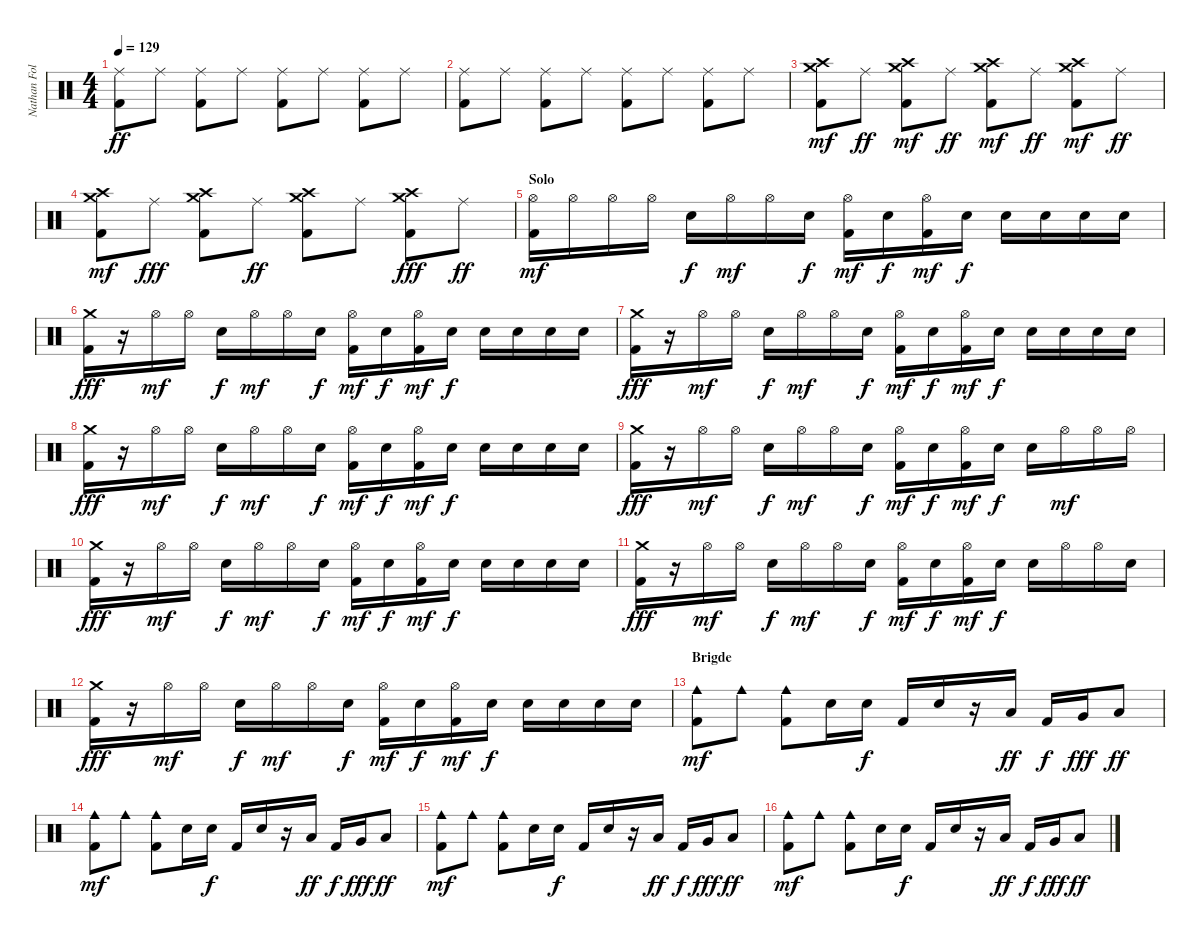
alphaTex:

\track ("Nathan Followill" "Nathan Fol") {instrument percussion}
\staff {score}
\articulation defaults
\ts (4 4)
\tempo 129
\clef neutral
\ks c
("Ride (middle)" "Kick (hit) 2").8{dy ff} "Ride (middle)".8 ("Ride (middle)" "Kick (hit) 2").8 "Ride (middle)".8 ("Ride (middle)" "Kick (hit) 2").8 "Ride (middle)".8 ("Ride (middle)" "Kick (hit) 2").8 "Ride (middle)".8 |
("Ride (middle)" "Kick (hit) 2").8 "Ride (middle)".8 ("Ride (middle)" "Kick (hit) 2").8 "Ride (middle)".8 ("Ride (middle)" "Kick (hit) 2").8 "Ride (middle)".8 ("Ride (middle)" "Kick (hit) 2").8 "Ride (middle)".8 |
("Crash medium (hit)" "Crash high (hit)" "Kick (hit) 2").8{dy mf} "Ride (middle)".8{dy ff} ("Crash medium (hit)" "Crash high (hit)" "Kick (hit) 2").8{dy mf} "Ride (middle)".8{dy ff} ("Crash medium (hit)" "Crash high (hit)" "Kick (hit) 2").8{dy mf} "Ride (middle)".8{dy ff} ("Crash medium (hit)" "Crash high (hit)" "Kick (hit) 2").8{dy mf} "Ride (middle)".8{dy ff} |
("Crash medium (hit)" "Crash high (hit)" "Kick (hit) 2").8{dy mf} "Ride (middle)".8{dy fff} ("Crash medium (hit)" "Crash high (hit)" "Kick (hit) 2").8 "Ride (middle)".8{dy ff} ("Crash medium (hit)" "Crash high (hit)" "Kick (hit) 2").8 "Ride (middle)".8 ("Crash medium (hit)" "Crash high (hit)" "Kick (hit) 2").8{dy fff} "Ride (middle)".8{dy ff} |
\section ("" "Solo")
("Hi-Hat (open)" "Kick (hit) 2").16{dy mf} "Hi-Hat (open)".16 "Hi-Hat (open)".16 "Hi-Hat (open)".16 "Electric Snare (hit)".16{dy f} "Hi-Hat (open)".16{dy mf} "Hi-Hat (open)".16 "Electric Snare (hit)".16{dy f} ("Hi-Hat (open)" "Kick (hit) 2").16{dy mf} "Electric Snare (hit)".16{dy f} ("Hi-Hat (open)" "Kick (hit) 2").16{dy mf} "Electric Snare (hit)".16{dy f} "Electric Snare (hit)".16 "Electric Snare (hit)".16 "Electric Snare (hit)".16 "Electric Snare (hit)".16 |
("Crash medium (hit)" "Kick (hit) 2").16{dy fff} r.16 "Hi-Hat (open)".16{dy mf} "Hi-Hat (open)".16 "Electric Snare (hit)".16{dy f} "Hi-Hat (open)".16{dy mf} "Hi-Hat (open)".16 "Electric Snare (hit)".16{dy f} ("Hi-Hat (open)" "Kick (hit) 2").16{dy mf} "Electric Snare (hit)".16{dy f} ("Hi-Hat (open)" "Kick (hit) 2").16{dy mf} "Electric Snare (hit)".16{dy f} "Electric Snare (hit)".16 "Electric Snare (hit)".16 "Electric Snare (hit)".16 "Electric Snare (hit)".16 |
("Crash medium (hit)" "Kick (hit) 2").16{dy fff} r.16 "Hi-Hat (open)".16{dy mf} "Hi-Hat (open)".16 "Electric Snare (hit)".16{dy f} "Hi-Hat (open)".16{dy mf} "Hi-Hat (open)".16 "Electric Snare (hit)".16{dy f} ("Hi-Hat (open)" "Kick (hit) 2").16{dy mf} "Electric Snare (hit)".16{dy f} ("Hi-Hat (open)" "Kick (hit) 2").16{dy mf} "Electric Snare (hit)".16{dy f} "Electric Snare (hit)".16 "Electric Snare (hit)".16 "Electric Snare (hit)".16 "Electric Snare (hit)".16 |
("Crash medium (hit)" "Kick (hit) 2").16{dy fff} r.16 "Hi-Hat (open)".16{dy mf} "Hi-Hat (open)".16 "Electric Snare (hit)".16{dy f} "Hi-Hat (open)".16{dy mf} "Hi-Hat (open)".16 "Electric Snare (hit)".16{dy f} ("Hi-Hat (open)" "Kick (hit) 2").16{dy mf} "Electric Snare (hit)".16{dy f} ("Hi-Hat (open)" "Kick (hit) 2").16{dy mf} "Electric Snare (hit)".16{dy f} "Electric Snare (hit)".16 "Electric Snare (hit)".16 "Electric Snare (hit)".16 "Electric Snare (hit)".16 |
("Crash medium (hit)" "Kick (hit) 2").16{dy fff} r.16 "Hi-Hat (open)".16{dy mf} "Hi-Hat (open)".16 "Electric Snare (hit)".16{dy f} "Hi-Hat (open)".16{dy mf} "Hi-Hat (open)".16 "Electric Snare (hit)".16{dy f} ("Hi-Hat (open)" "Kick (hit) 2").16{dy mf} "Electric Snare (hit)".16{dy f} ("Hi-Hat (open)" "Kick (hit) 2").16{dy mf} "Electric Snare (hit)".16{dy f} "Electric Snare (hit)".16 "Hi-Hat (open)".16{dy mf} "Hi-Hat (open)".16 "Hi-Hat (open)".16 |
("Crash medium (hit)" "Kick (hit) 2").16{dy fff} r.16 "Hi-Hat (open)".16{dy mf} "Hi-Hat (open)".16 "Electric Snare (hit)".16{dy f} "Hi-Hat (open)".16{dy mf} "Hi-Hat (open)".16 "Electric Snare (hit)".16{dy f} ("Hi-Hat (open)" "Kick (hit) 2").16{dy mf} "Electric Snare (hit)".16{dy f} ("Hi-Hat (open)" "Kick (hit) 2").16{dy mf} "Electric Snare (hit)".16{dy f} "Electric Snare (hit)".16 "Electric Snare (hit)".16 "Electric Snare (hit)".16 "Electric Snare (hit)".16 |
("Crash medium (hit)" "Kick (hit) 2").16{dy fff} r.16 "Hi-Hat (open)".16{dy mf} "Hi-Hat (open)".16 "Electric Snare (hit)".16{dy f} "Hi-Hat (open)".16{dy mf} "Hi-Hat (open)".16 "Electric Snare (hit)".16{dy f} ("Hi-Hat (open)" "Kick (hit) 2").16{dy mf} "Electric Snare (hit)".16{dy f} ("Hi-Hat (open)" "Kick (hit) 2").16{dy mf} "Electric Snare (hit)".16{dy f} "Electric Snare (hit)".16 "Hi-Hat (open)".16 "Hi-Hat (open)".16 "Electric Snare (hit)".16 |
("Crash medium (hit)" "Kick (hit) 2").16{dy fff} r.16 "Hi-Hat (open)".16{dy mf} "Hi-Hat (open)".16 "Electric Snare (hit)".16{dy f} "Hi-Hat (open)".16{dy mf} "Hi-Hat (open)".16 "Electric Snare (hit)".16{dy f} ("Hi-Hat (open)" "Kick (hit) 2").16{dy mf} "Electric Snare (hit)".16{dy f} ("Hi-Hat (open)" "Kick (hit) 2").16{dy mf} "Electric Snare (hit)".16{dy f} "Electric Snare (hit)".16 "Electric Snare (hit)".16 "Electric Snare (hit)".16 "Electric Snare (hit)".16 |
\section ("" "Brigde")
("Cowbell medium (hit)" "Kick (hit) 2").8{dy mf} "Cowbell medium (hit)".8 ("Cowbell medium (hit)" "Kick (hit) 2").8 "Electric Snare (hit)".16 "Electric Snare (hit)".16{dy f} "Kick (hit) 2".16 "Electric Snare (hit)".16 r.16 "Low Tom (hit)".16{dy ff} "Kick (hit) 2".16{dy f} "Very Low Tom (hit)".16{dy fff} "Low Tom (hit)".8{dy ff} |
("Cowbell medium (hit)" "Kick (hit) 2").8{dy mf} "Cowbell medium (hit)".8 ("Cowbell medium (hit)" "Kick (hit) 2").8 "Electric Snare (hit)".16 "Electric Snare (hit)".16{dy f} "Kick (hit) 2".16 "Electric Snare (hit)".16 r.16 "Low Tom (hit)".16{dy ff} "Kick (hit) 2".16{dy f} "Very Low Tom (hit)".16{dy fff} "Low Tom (hit)".8{dy ff} |
("Cowbell medium (hit)" "Kick (hit) 2").8{dy mf} "Cowbell medium (hit)".8 ("Cowbell medium (hit)" "Kick (hit) 2").8 "Electric Snare (hit)".16 "Electric Snare (hit)".16{dy f} "Kick (hit) 2".16 "Electric Snare (hit)".16 r.16 "Low Tom (hit)".16{dy ff} "Kick (hit) 2".16{dy f} "Very Low Tom (hit)".16{dy fff} "Low Tom (hit)".8{dy ff} |
("Cowbell medium (hit)" "Kick (hit) 2").8{dy mf} "Cowbell medium (hit)".8 ("Cowbell medium (hit)" "Kick (hit) 2").8 "Electric Snare (hit)".16 "Electric Snare (hit)".16{dy f} "Kick (hit) 2".16 "Electric Snare (hit)".16 r.16 "Low Tom (hit)".16{dy ff} "Kick (hit) 2".16{dy f} "Very Low Tom (hit)".16{dy fff} "Low Tom (hit)".8{dy ff}
